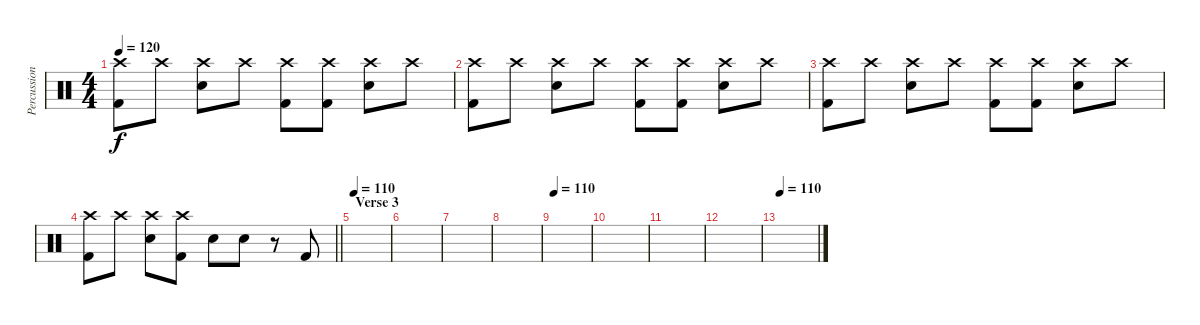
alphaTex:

\track ("Percussion" "Percussion") {instrument percussion}
\staff {score}
\articulation defaults
\ts (4 4)
\tempo 120
\clef neutral
\ks c
("Crash high (hit)" "Kick (hit) 2").8{dy f} "Crash high (hit)".8 ("Crash high (hit)" "Snare (hit) 2").8 "Crash high (hit)".8 ("Crash high (hit)" "Kick (hit) 2").8 ("Crash high (hit)" "Kick (hit) 2").8 ("Crash high (hit)" "Snare (hit) 2").8 "Crash high (hit)".8 |
("Crash high (hit)" "Kick (hit) 2").8 "Crash high (hit)".8 ("Crash high (hit)" "Snare (hit) 2").8 "Crash high (hit)".8 ("Crash high (hit)" "Kick (hit) 2").8 ("Crash high (hit)" "Kick (hit) 2").8 ("Crash high (hit)" "Snare (hit) 2").8 "Crash high (hit)".8 |
("Crash high (hit)" "Kick (hit) 2").8 "Crash high (hit)".8 ("Crash high (hit)" "Snare (hit) 2").8 "Crash high (hit)".8 ("Crash high (hit)" "Kick (hit) 2").8 ("Crash high (hit)" "Kick (hit) 2").8 ("Crash high (hit)" "Snare (hit) 2").8 "Crash high (hit)".8 |
\barLineRight lightlight
("Crash high (hit)" "Kick (hit) 2").8 "Crash high (hit)".8 ("Crash high (hit)" "Snare (hit) 2").8 ("Crash high (hit)" "Kick (hit) 2").8 "Snare (hit) 2".8 "Snare (hit) 2".8 r.8 "Kick (hit) 2".8 |
\section ("" "Verse 3")
\tempo 110
|
|
|
|
\tempo 110
|
|
|
|
\tempo 110
